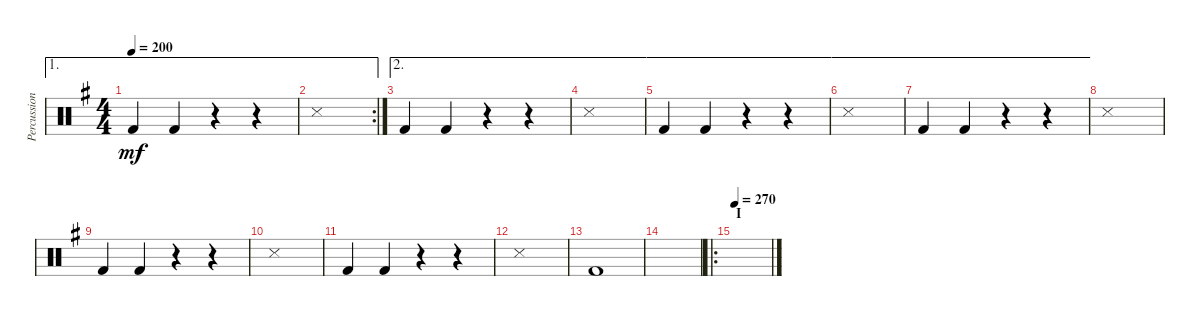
\track ("Percussion" "Percussion") {instrument percussion}
\staff {score}
\articulation defaults
\ae 1
\ts (4 4)
\tempo 200
\clef neutral
\ks g "Kick (hit) 2".4{dy mf} "Kick (hit) 2".4
r.4 r.4 |
\ae 1
\rc 2 "Snare (side stick) 3".1
|
\ae 2 "Kick (hit) 2".4 "Kick (hit) 2".4
r.4 r.4 |
\ae 2 "Snare (side stick) 3".1
|
\ae 2 "Kick (hit) 2".4 "Kick (hit) 2".4
r.4 r.4 |
\ae 2 "Snare (side stick) 3".1
|
\ae 2 "Kick (hit) 2".4 "Kick (hit) 2".4
r.4 r.4 |
"Snare (side stick) 3".1 |
"Kick (hit) 2".4 "Kick (hit) 2".4 r.4 r.4 |
"Snare (side stick) 3".1 |
"Kick (hit) 2".4 "Kick (hit) 2".4 r.4 r.4 |
"Snare (side stick) 3".1 |
"Kick (hit) 2".1 |
|
\ro
\section ("" "I")
\tempo 270
